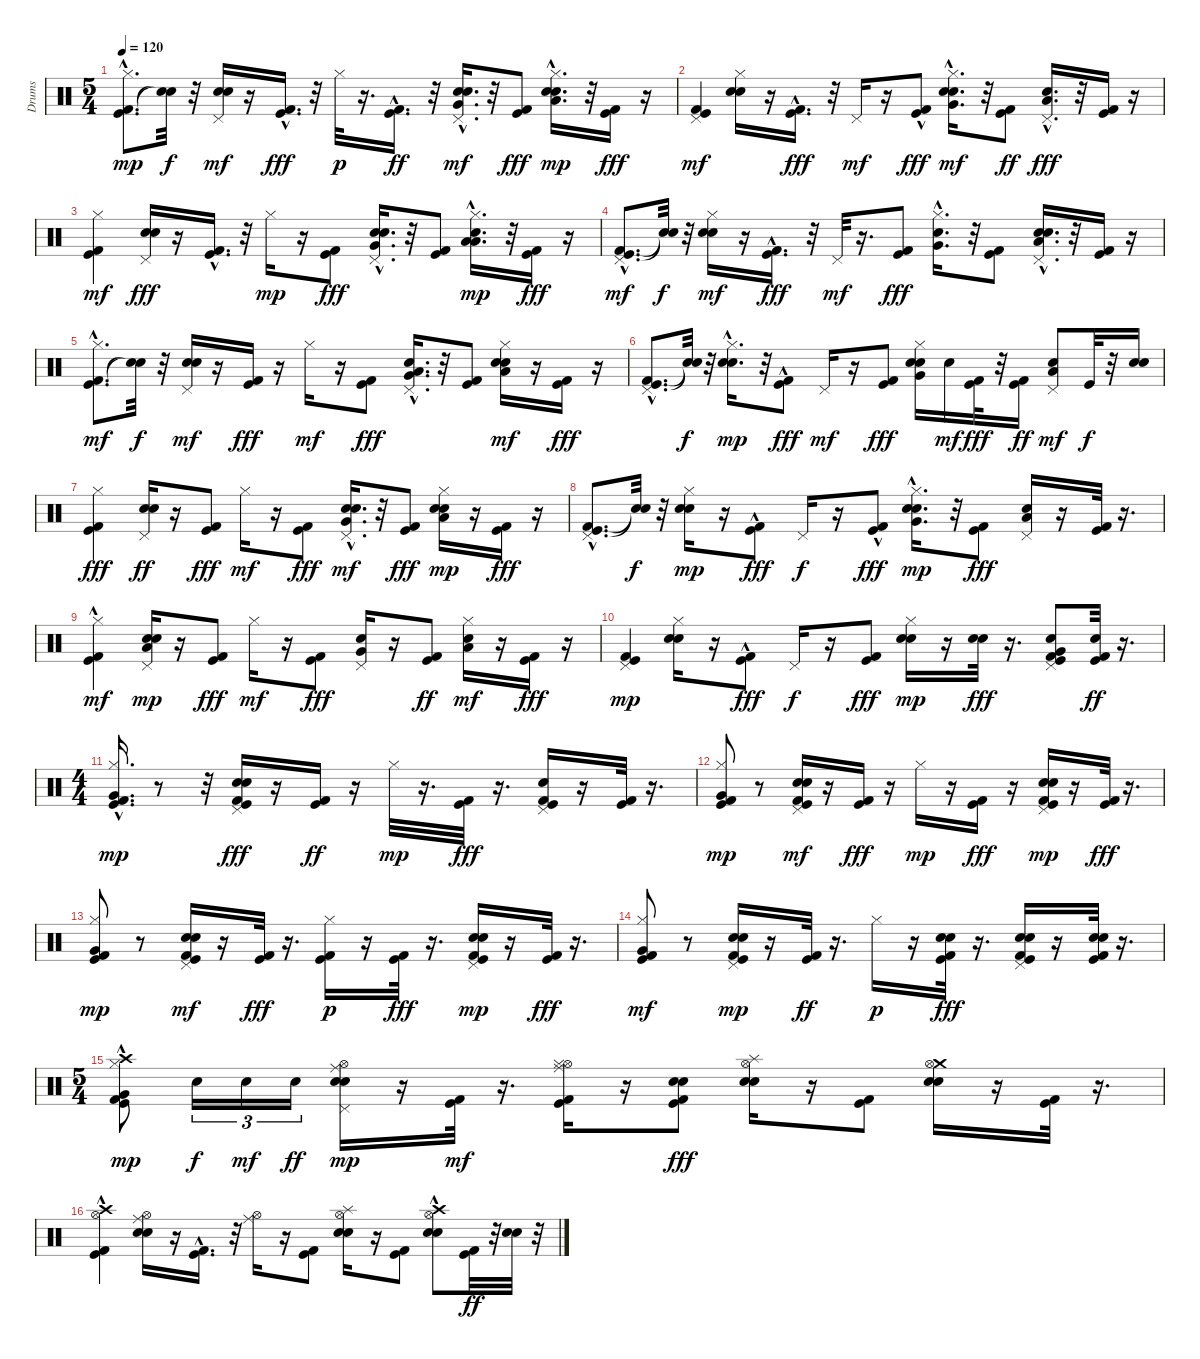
\track ("Drums" "Drums") {instrument percussion}
\staff {score}
\articulation defaults
\ts (5 4)
\tempo 120
\clef neutral
\ks c
("Kick (hit) 2"{hac} "Kick (hit)"{hac} "Hi-Hat (closed)").8{d dy mp} ("Snare (hit)"{t} "Snare (hit)"{t}).32{dy f} r.32 ("Snare (hit) 2" "Electric Snare (hit)" "Pedal Hi-Hat (hit)").16{dy mf} r.16 ("Kick (hit)"{hac} "Kick (hit) 2"{hac}).16{d dy fff} r.32 "Hi-Hat (closed)".32{dy p} r.16{d} ("Kick (hit)"{hac} "Kick (hit) 2"{hac}).16{d dy ff} r.32 ("Electric Snare (hit)" "Very Low Tom (hit)"{hac} "Snare (hit) 2"{hac} "Pedal Hi-Hat (hit)").16{d dy mf} r.32 ("Kick (hit) 2" "Kick (hit)").8{dy fff} ("Electric Snare (hit)" "Low Tom (hit)"{hac} "Snare (hit) 2"{hac} "Hi-Hat (closed)").16{d dy mp} r.32 ("Kick (hit) 2" "Kick (hit)").16{dy fff} r.16 |
("Kick (hit) 2" "Kick (hit)" "Pedal Hi-Hat (hit)").4{dy mf} ("Electric Snare (hit)" "Snare (hit) 2" "Hi-Hat (closed)").16 r.16 ("Kick (hit) 2"{hac} "Kick (hit)"{hac}).16{d dy fff} r.32 "Pedal Hi-Hat (hit)".16{dy mf} r.16 ("Kick (hit) 2"{hac} "Kick (hit)").8{dy fff} ("Electric Snare (hit)" "Very Low Tom (hit)"{hac} "Snare (hit) 2"{hac} "Hi-Hat (closed)").16{d dy mf} r.32 ("Kick (hit) 2" "Kick (hit)").8{dy ff} ("Low Tom (hit)"{hac} "Snare (hit) 2" "Pedal Hi-Hat (hit)").16{d dy fff} r.32 ("Kick (hit)" "Kick (hit) 2").16 r.16 |
("Kick (hit) 2" "Kick (hit)" "Hi-Hat (closed)").4{dy mf} ("Snare (hit) 2" "Electric Snare (hit)" "Pedal Hi-Hat (hit)").16{dy fff} r.16 ("Kick (hit) 2"{hac} "Kick (hit)"{hac}).16{d} r.32 "Hi-Hat (closed)".16{dy mp} r.16 ("Kick (hit)" "Kick (hit) 2").8{dy fff} ("Pedal Hi-Hat (hit)" "Electric Snare (hit)" "Snare (hit) 2"{hac} "Very Low Tom (hit)"{hac}).16{d} r.32 ("Kick (hit) 2" "Kick (hit)").8 ("Low Floor Tom (hit)" "Snare (hit) 2"{hac} "Low Tom (hit)"{hac} "Hi-Hat (closed)").16{d dy mp} r.32 ("Kick (hit)" "Kick (hit) 2").16{dy fff} r.16 |
("Kick (hit) 2"{hac} "Kick (hit)"{hac} "Pedal Hi-Hat (hit)").8{d dy mf} ("Snare (hit)"{t} "Snare (hit)"{t}).32{dy f} r.32 ("Electric Snare (hit)" "Snare (hit) 2" "Hi-Hat (closed)").16{dy mf} r.16 ("Kick (hit) 2"{hac} "Kick (hit)"{hac}).16{d dy fff} r.32 "Pedal Hi-Hat (hit)".32{dy mf} r.16{d} ("Kick (hit) 2" "Kick (hit)").8{dy fff} ("Hi-Hat (closed)" "Snare (hit) 2"{hac} "Very Low Tom (hit)"{hac}).16{d} r.32 ("Kick (hit) 2" "Kick (hit)").8 ("Pedal Hi-Hat (hit)" "Electric Snare (hit)" "Low Tom (hit)"{hac} "Snare (hit) 2"{hac}).16{d} r.32 ("Kick (hit) 2" "Kick (hit)").16 r.16 |
("Kick (hit) 2"{hac} "Kick (hit)"{hac} "Hi-Hat (closed)").8{d dy mf} ("Snare (hit)"{t} "Snare (hit)"{t}).32{dy f} r.32 ("Electric Snare (hit)" "Snare (hit) 2" "Pedal Hi-Hat (hit)").16{dy mf} r.16 ("Kick (hit) 2" "Kick (hit)").16{dy fff} r.16 "Hi-Hat (closed)".16{dy mf} r.16 ("Kick (hit)" "Kick (hit) 2").8{dy fff} ("Snare (hit) 2" "Very Low Tom (hit)"{hac} "Low Floor Tom (hit)" "Pedal Hi-Hat (hit)").16{d} r.32 ("Kick (hit) 2" "Kick (hit)").8 ("Low Tom (hit)" "Snare (hit) 2" "Electric Snare (hit)" "Hi-Hat (closed)").16{dy mf} r.16 ("Kick (hit)" "Kick (hit) 2").16{dy fff} r.16 |
("Kick (hit)"{hac} "Kick (hit) 2"{hac} "Pedal Hi-Hat (hit)").8{d} ("Snare (hit)"{t} "Snare (hit)"{t}).32{dy f} r.32 ("Snare (hit) 2" "Electric Snare (hit)"{hac} "Hi-Hat (closed)").16{d dy mp} r.32 ("Kick (hit) 2"{hac} "Kick (hit)").8{dy fff} "Pedal Hi-Hat (hit)".16{dy mf} r.16 ("Kick (hit) 2" "Kick (hit)").8{dy fff} ("Hi-Hat (closed)" "Electric Snare (hit)" "Very Low Tom (hit)" "Snare (hit) 2").16 "Snare (hit) 2".16{dy mf} ("Kick (hit) 2" "Kick (hit)").32{dy fff} r.32 ("Kick (hit)" "Kick (hit) 2").16{dy ff} ("Snare (hit) 2" "Low Tom (hit)" "Pedal Hi-Hat (hit)").8{dy mf} "Kick (hit)".32{dy f} r.32 ("Snare (hit) 2" "Electric Snare (hit)").16 |
("Hi-Hat (closed)" "Kick (hit) 2" "Kick (hit)").4{dy fff} ("Electric Snare (hit)" "Snare (hit) 2" "Pedal Hi-Hat (hit)").16{dy ff} r.16 ("Kick (hit) 2" "Kick (hit)").8{dy fff} "Hi-Hat (closed)".16{dy mf} r.16 ("Kick (hit)" "Kick (hit) 2").8{dy fff} ("Electric Snare (hit)" "Very Low Tom (hit)"{hac} "Snare (hit) 2"{hac} "Pedal Hi-Hat (hit)").16{d dy mf} r.32 ("Kick (hit) 2" "Kick (hit)").8{dy fff} ("Electric Snare (hit)" "Low Tom (hit)" "Snare (hit) 2" "Hi-Hat (closed)").16{dy mp} r.16 ("Kick (hit)" "Kick (hit) 2").16{dy fff} r.16 |
("Kick (hit) 2"{hac} "Kick (hit)"{hac} "Pedal Hi-Hat (hit)").8{d} ("Snare (hit)"{t} "Snare (hit)"{t}).32{dy f} r.32 ("Electric Snare (hit)" "Snare (hit) 2" "Hi-Hat (closed)").16{dy mp} r.16 ("Kick (hit) 2"{hac} "Kick (hit)").8{dy fff} "Pedal Hi-Hat (hit)".16{dy f} r.16 ("Kick (hit) 2"{hac} "Kick (hit)").8{dy fff} ("Electric Snare (hit)" "Very Low Tom (hit)"{hac} "Snare (hit) 2"{hac} "Hi-Hat (closed)").16{d dy mp} r.32 ("Kick (hit)" "Kick (hit) 2").8{dy fff} ("Low Tom (hit)" "Snare (hit) 2" "Pedal Hi-Hat (hit)").16 r.16 ("Kick (hit) 2" "Kick (hit)").32 r.16{d} |
("Kick (hit) 2"{hac} "Kick (hit)" "Hi-Hat (closed)").4{dy mf} ("Low Floor Tom (hit)" "Electric Snare (hit)" "Snare (hit) 2" "Pedal Hi-Hat (hit)").16{dy mp} r.16 ("Kick (hit) 2" "Kick (hit)").8{dy fff} "Hi-Hat (closed)".16{dy mf} r.16 ("Kick (hit) 2" "Kick (hit)").8{dy fff} ("Snare (hit) 2" "Very Low Tom (hit)" "Pedal Hi-Hat (hit)").16 r.16 ("Kick (hit)" "Kick (hit) 2").8{dy ff} ("Low Tom (hit)" "Snare (hit) 2" "Hi-Hat (closed)").16{dy mf} r.16 ("Kick (hit)" "Kick (hit) 2").16{dy fff} r.16 |
("Kick (hit) 2" "Kick (hit)" "Pedal Hi-Hat (hit)").4{dy mp} ("Snare (hit) 2" "Electric Snare (hit)" "Hi-Hat (closed)").16 r.16 ("Kick (hit) 2"{hac} "Kick (hit)").8{dy fff} "Pedal Hi-Hat (hit)".16{dy f} r.16 ("Kick (hit)" "Kick (hit) 2").8{dy fff} ("Snare (hit) 2" "Electric Snare (hit)" "Hi-Hat (closed)").16{dy mp} r.16 ("Snare (hit) 2" "Electric Snare (hit)").32{dy fff} r.16{d} ("Kick (hit)" "Kick (hit) 2" "Snare (hit) 2" "Very Low Tom (hit)" "Pedal Hi-Hat (hit)").8 ("Kick (hit) 2" "Kick (hit)" "Snare (hit) 2").32{dy ff} r.16{d} |
\ts (4 4)
("Very Low Tom (hit)" "Kick (hit) 2"{hac} "Kick (hit)"{hac} "Hi-Hat (closed)").16{d dy mp} r.8 r.32 ("Pedal Hi-Hat (hit)" "Electric Snare (hit)" "Snare (hit) 2" "Kick (hit) 2" "Kick (hit)").16{dy fff} r.16 ("Kick (hit)" "Kick (hit) 2").16{dy ff} r.16 "Hi-Hat (closed)".32{dy mp} r.16{d} ("Kick (hit) 2" "Kick (hit)").32{dy fff} r.16{d} ("Pedal Hi-Hat (hit)" "Snare (hit) 2" "Kick (hit)" "Kick (hit) 2").16 r.16 ("Kick (hit)" "Kick (hit) 2").32 r.16{d} |
("Very Low Tom (hit)" "Kick (hit)" "Kick (hit) 2" "Hi-Hat (closed)").8{dy mp} r.8 ("Electric Snare (hit)" "Snare (hit) 2" "Kick (hit)" "Kick (hit) 2" "Pedal Hi-Hat (hit)").16{dy mf} r.16 ("Kick (hit)" "Kick (hit) 2").16{dy fff} r.16 "Hi-Hat (closed)".16{dy mp} r.16 ("Kick (hit) 2" "Kick (hit)").16{dy fff} r.16 ("Snare (hit) 2" "Electric Snare (hit)" "Kick (hit) 2" "Kick (hit)" "Pedal Hi-Hat (hit)").16{dy mp} r.16 ("Kick (hit)" "Kick (hit) 2").32{dy fff} r.16{d} |
("Kick (hit) 2" "Kick (hit)" "Very Low Tom (hit)" "Hi-Hat (closed)").8{dy mp} r.8 ("Snare (hit) 2" "Electric Snare (hit)" "Kick (hit) 2" "Kick (hit)" "Pedal Hi-Hat (hit)").16{dy mf} r.16 ("Kick (hit)" "Kick (hit) 2").32{dy fff} r.16{d} ("Kick (hit)" "Kick (hit) 2" "Hi-Hat (closed)").16{dy p} r.16 ("Kick (hit)" "Kick (hit) 2").32{dy fff} r.16{d} ("Electric Snare (hit)" "Snare (hit) 2" "Kick (hit) 2" "Kick (hit)" "Pedal Hi-Hat (hit)").16{dy mp} r.16 ("Kick (hit) 2" "Kick (hit)").32{dy fff} r.16{d} |
("Kick (hit) 2" "Kick (hit)" "Very Low Tom (hit)" "Hi-Hat (closed)").8{dy mf} r.8 ("Kick (hit) 2" "Kick (hit)" "Snare (hit) 2" "Electric Snare (hit)" "Pedal Hi-Hat (hit)").16{dy mp} r.16 ("Kick (hit) 2" "Kick (hit)").32{dy ff} r.16{d} "Hi-Hat (closed)".16{dy p} r.16 ("Electric Snare (hit)" "Snare (hit) 2" "Kick (hit)" "Kick (hit) 2").32{dy fff} r.16{d} ("Kick (hit) 2" "Snare (hit) 2" "Kick (hit)" "Electric Snare (hit)" "Pedal Hi-Hat (hit)").16 r.16 ("Snare (hit) 2" "Electric Snare (hit)" "Kick (hit) 2" "Kick (hit)").32 r.16{d} |
\ts (5 4)
("Very Low Tom (hit)" "Crash high (hit)"{hac} "Kick (hit) 2"{hac} "Kick (hit)"{hac} "Hi-Hat (closed)").8{dy mp} "Electric Snare (hit)".16{tu (3 2) dy f} "Snare (hit) 2".16{tu (3 2) dy mf} "Electric Snare (hit)".16{tu (3 2) dy ff} ("Snare (hit) 2" "Hi-Hat (open)" "Ride (middle)" "Electric Snare (hit)" "Pedal Hi-Hat (hit)").16{dy mp} r.16 ("Kick (hit) 2" "Kick (hit)").32{dy mf} r.16{d} ("Kick (hit)" "Kick (hit) 2" "Hi-Hat (open)" "Ride (middle)" "Hi-Hat (closed)").16 r.16 ("Electric Snare (hit)" "Snare (hit) 2" "Kick (hit)" "Kick (hit) 2").8{dy fff} ("Hi-Hat (open)" "Splash (hit)" "Electric Snare (hit)" "Snare (hit) 2").16 r.16 ("Kick (hit) 2" "Kick (hit)").8 ("Crash medium (hit)" "Hi-Hat (open)" "Electric Snare (hit)" "Snare (hit) 2").16 r.16 ("Kick (hit) 2" "Kick (hit)").32 r.16{d} |
("Hi-Hat (open)" "Crash high (hit)" "Kick (hit) 2"{hac} "Kick (hit)").4 ("Hi-Hat (open)" "Ride (middle)" "Snare (hit) 2" "Electric Snare (hit)").16 r.16 ("Kick (hit)"{hac} "Kick (hit) 2"{hac}).16{d} r.32 ("Hi-Hat (open)" "Ride (middle)").16 r.16 ("Kick (hit) 2" "Kick (hit)").8 ("Hi-Hat (open)" "Splash (hit)" "Electric Snare (hit)" "Snare (hit) 2").16 r.16 ("Kick (hit) 2" "Kick (hit)").8 ("Crash high (hit)" "Hi-Hat (open)" "Electric Snare (hit)" "Snare (hit) 2"{hac}).8 ("Kick (hit)" "Kick (hit) 2").32{dy ff} r.32 ("Snare (hit) 2" "Electric Snare (hit)").32 r.32
